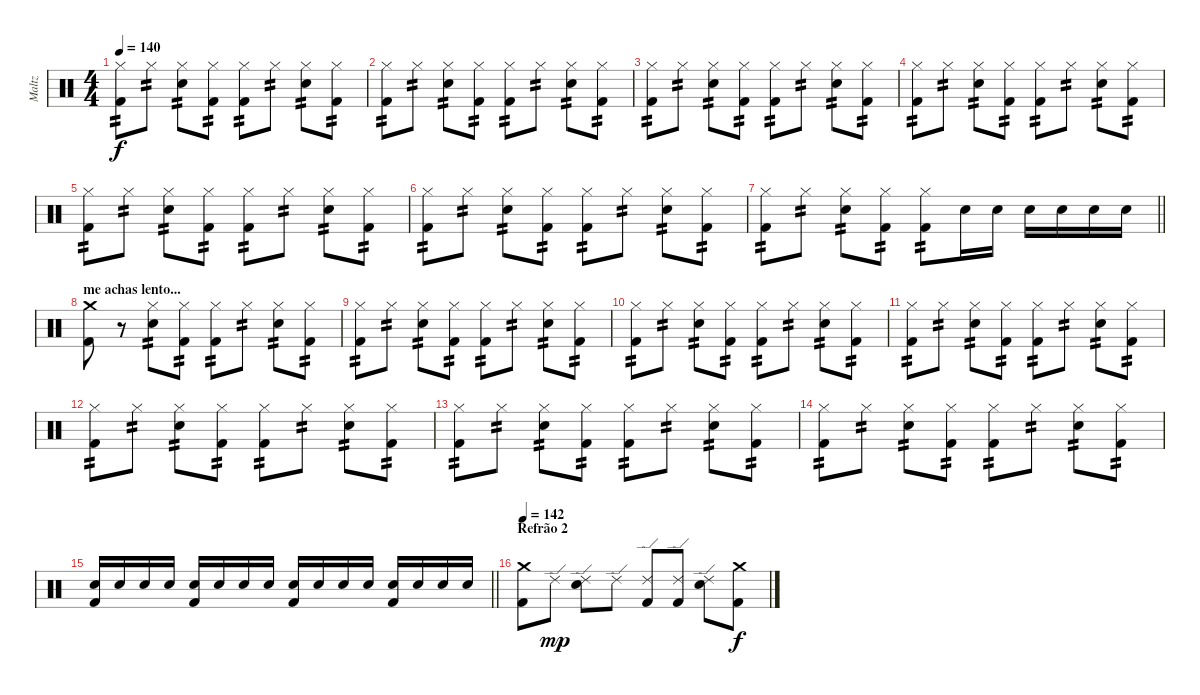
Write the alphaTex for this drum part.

\track ("Maltz" "Maltz") {instrument percussion}
\staff {score}
\articulation defaults
\ts (4 4)
\tempo 140
\clef neutral
\ks c
("Hi-Hat (closed)" "Kick (hit) 2").8{tp 2 dy f} "Hi-Hat (closed)".8{tp 2} ("Hi-Hat (closed)" "Electric Snare (hit)").8{tp 2} ("Hi-Hat (closed)" "Kick (hit) 2").8{tp 2} ("Hi-Hat (closed)" "Kick (hit) 2").8{tp 2} "Hi-Hat (closed)".8{tp 2} ("Hi-Hat (closed)" "Electric Snare (hit)").8{tp 2} ("Hi-Hat (closed)" "Kick (hit) 2").8{tp 2} |
("Hi-Hat (closed)" "Kick (hit) 2").8{tp 2} "Hi-Hat (closed)".8{tp 2} ("Hi-Hat (closed)" "Electric Snare (hit)").8{tp 2} ("Hi-Hat (closed)" "Kick (hit) 2").8{tp 2} ("Hi-Hat (closed)" "Kick (hit) 2").8{tp 2} "Hi-Hat (closed)".8{tp 2} ("Hi-Hat (closed)" "Electric Snare (hit)").8{tp 2} ("Hi-Hat (closed)" "Kick (hit) 2").8{tp 2} |
("Hi-Hat (closed)" "Kick (hit) 2").8{tp 2} "Hi-Hat (closed)".8{tp 2} ("Hi-Hat (closed)" "Electric Snare (hit)").8{tp 2} ("Hi-Hat (closed)" "Kick (hit) 2").8{tp 2} ("Hi-Hat (closed)" "Kick (hit) 2").8{tp 2} "Hi-Hat (closed)".8{tp 2} ("Hi-Hat (closed)" "Electric Snare (hit)").8{tp 2} ("Hi-Hat (closed)" "Kick (hit) 2").8{tp 2} |
("Hi-Hat (closed)" "Kick (hit) 2").8{tp 2} "Hi-Hat (closed)".8{tp 2} ("Hi-Hat (closed)" "Electric Snare (hit)").8{tp 2} ("Hi-Hat (closed)" "Kick (hit) 2").8{tp 2} ("Hi-Hat (closed)" "Kick (hit) 2").8{tp 2} "Hi-Hat (closed)".8{tp 2} ("Hi-Hat (closed)" "Electric Snare (hit)").8{tp 2} ("Hi-Hat (closed)" "Kick (hit) 2").8{tp 2} |
("Hi-Hat (closed)" "Kick (hit) 2").8{tp 2} "Hi-Hat (closed)".8{tp 2} ("Hi-Hat (closed)" "Electric Snare (hit)").8{tp 2} ("Hi-Hat (closed)" "Kick (hit) 2").8{tp 2} ("Hi-Hat (closed)" "Kick (hit) 2").8{tp 2} "Hi-Hat (closed)".8{tp 2} ("Hi-Hat (closed)" "Electric Snare (hit)").8{tp 2} ("Hi-Hat (closed)" "Kick (hit) 2").8{tp 2} |
("Hi-Hat (closed)" "Kick (hit) 2").8{tp 2} "Hi-Hat (closed)".8{tp 2} ("Hi-Hat (closed)" "Electric Snare (hit)").8{tp 2} ("Hi-Hat (closed)" "Kick (hit) 2").8{tp 2} ("Hi-Hat (closed)" "Kick (hit) 2").8{tp 2} "Hi-Hat (closed)".8{tp 2} ("Hi-Hat (closed)" "Electric Snare (hit)").8{tp 2} ("Hi-Hat (closed)" "Kick (hit) 2").8{tp 2} |
\barLineRight lightlight
("Hi-Hat (closed)" "Kick (hit) 2").8{tp 2} "Hi-Hat (closed)".8{tp 2} ("Hi-Hat (closed)" "Electric Snare (hit)").8{tp 2} ("Hi-Hat (closed)" "Kick (hit) 2").8{tp 2} ("Hi-Hat (closed)" "Kick (hit) 2").8{tp 2} "Electric Snare (hit)".16 "Electric Snare (hit)".16 "Electric Snare (hit)".16 "Electric Snare (hit)".16 "Electric Snare (hit)".16 "Electric Snare (hit)".16 |
\section ("" "me achas lento...")
("Crash medium (hit)" "Kick (hit) 2").8 r.8 ("Hi-Hat (closed)" "Electric Snare (hit)").8{tp 2} ("Hi-Hat (closed)" "Kick (hit) 2").8{tp 2} ("Hi-Hat (closed)" "Kick (hit) 2").8{tp 2} "Hi-Hat (closed)".8{tp 2} ("Hi-Hat (closed)" "Electric Snare (hit)").8{tp 2} ("Hi-Hat (closed)" "Kick (hit) 2").8{tp 2} |
("Hi-Hat (closed)" "Kick (hit) 2").8{tp 2} "Hi-Hat (closed)".8{tp 2} ("Hi-Hat (closed)" "Electric Snare (hit)").8{tp 2} ("Hi-Hat (closed)" "Kick (hit) 2").8{tp 2} ("Hi-Hat (closed)" "Kick (hit) 2").8{tp 2} "Hi-Hat (closed)".8{tp 2} ("Hi-Hat (closed)" "Electric Snare (hit)").8{tp 2} ("Hi-Hat (closed)" "Kick (hit) 2").8{tp 2} |
("Hi-Hat (closed)" "Kick (hit) 2").8{tp 2} "Hi-Hat (closed)".8{tp 2} ("Hi-Hat (closed)" "Electric Snare (hit)").8{tp 2} ("Hi-Hat (closed)" "Kick (hit) 2").8{tp 2} ("Hi-Hat (closed)" "Kick (hit) 2").8{tp 2} "Hi-Hat (closed)".8{tp 2} ("Hi-Hat (closed)" "Electric Snare (hit)").8{tp 2} ("Hi-Hat (closed)" "Kick (hit) 2").8{tp 2} |
("Hi-Hat (closed)" "Kick (hit) 2").8{tp 2} "Hi-Hat (closed)".8{tp 2} ("Hi-Hat (closed)" "Electric Snare (hit)").8{tp 2} ("Hi-Hat (closed)" "Kick (hit) 2").8{tp 2} ("Hi-Hat (closed)" "Kick (hit) 2").8{tp 2} "Hi-Hat (closed)".8{tp 2} ("Hi-Hat (closed)" "Electric Snare (hit)").8{tp 2} ("Hi-Hat (closed)" "Kick (hit) 2").8{tp 2} |
("Hi-Hat (closed)" "Kick (hit) 2").8{tp 2} "Hi-Hat (closed)".8{tp 2} ("Hi-Hat (closed)" "Electric Snare (hit)").8{tp 2} ("Hi-Hat (closed)" "Kick (hit) 2").8{tp 2} ("Hi-Hat (closed)" "Kick (hit) 2").8{tp 2} "Hi-Hat (closed)".8{tp 2} ("Hi-Hat (closed)" "Electric Snare (hit)").8{tp 2} ("Hi-Hat (closed)" "Kick (hit) 2").8{tp 2} |
("Hi-Hat (closed)" "Kick (hit) 2").8{tp 2} "Hi-Hat (closed)".8{tp 2} ("Hi-Hat (closed)" "Electric Snare (hit)").8{tp 2} ("Hi-Hat (closed)" "Kick (hit) 2").8{tp 2} ("Hi-Hat (closed)" "Kick (hit) 2").8{tp 2} "Hi-Hat (closed)".8{tp 2} ("Hi-Hat (closed)" "Electric Snare (hit)").8{tp 2} ("Hi-Hat (closed)" "Kick (hit) 2").8{tp 2} |
("Hi-Hat (closed)" "Kick (hit) 2").8{tp 2} "Hi-Hat (closed)".8{tp 2} ("Hi-Hat (closed)" "Electric Snare (hit)").8{tp 2} ("Hi-Hat (closed)" "Kick (hit) 2").8{tp 2} ("Hi-Hat (closed)" "Kick (hit) 2").8{tp 2} "Hi-Hat (closed)".8{tp 2} ("Hi-Hat (closed)" "Electric Snare (hit)").8{tp 2} ("Hi-Hat (closed)" "Kick (hit) 2").8{tp 2} |
\barLineRight lightlight
("Electric Snare (hit)" "Kick (hit) 2").16 "Electric Snare (hit)".16 "Electric Snare (hit)".16 "Electric Snare (hit)".16 ("Electric Snare (hit)" "Kick (hit) 2").16 "Electric Snare (hit)".16 "Electric Snare (hit)".16 "Electric Snare (hit)".16 ("Electric Snare (hit)" "Kick (hit) 2").16 "Electric Snare (hit)".16 "Electric Snare (hit)".16 "Electric Snare (hit)".16 ("Electric Snare (hit)" "Kick (hit) 2").16 "Electric Snare (hit)".16 "Electric Snare (hit)".16 "Electric Snare (hit)".16 |
\section ("" "Refrão 2")
\tempo 142
("Crash medium (hit)" "Kick (hit) 2").8 "Ride (edge) 2".8{dy mp} ("Ride (edge) 2" "Electric Snare (hit)").8 "Ride (edge) 2".8 ("Ride (edge) 2" "Kick (hit) 2").8 ("Ride (edge) 2" "Kick (hit) 2").8 ("Ride (edge) 2" "Electric Snare (hit)").8 ("Crash medium (hit)" "Kick (hit) 2").8{dy f}
